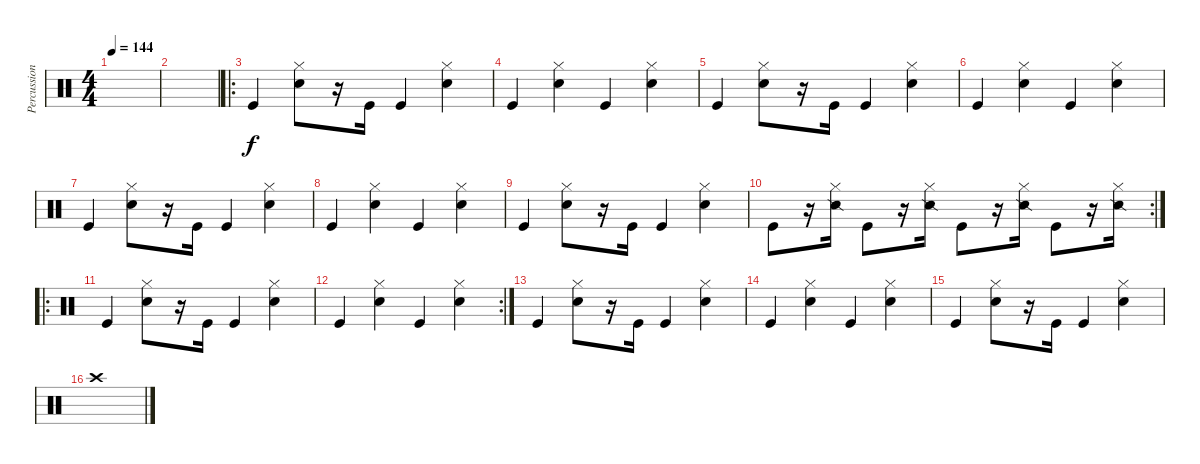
\track ("Percussions" "Percussion") {instrument percussion}
\staff {score}
\articulation defaults
\ts (4 4)
\tempo 144
\clef neutral
\ks c
|
|
\ro "Kick (hit)".4
("Hi-Hat (closed)" "Electric Snare (hit)").8 r.16 "Kick (hit)".16 "Kick (hit)".4 ("Hi-Hat (closed)" "Electric Snare (hit)").4 |
"Kick (hit)".4 ("Hi-Hat (closed)" "Electric Snare (hit)").4 "Kick (hit)".4 ("Hi-Hat (closed)" "Electric Snare (hit)").4 |
"Kick (hit)".4 ("Hi-Hat (closed)" "Electric Snare (hit)").8 r.16 "Kick (hit)".16 "Kick (hit)".4 ("Hi-Hat (closed)" "Electric Snare (hit)").4 |
"Kick (hit)".4 ("Hi-Hat (closed)" "Electric Snare (hit)").4 "Kick (hit)".4 ("Hi-Hat (closed)" "Electric Snare (hit)").4 |
"Kick (hit)".4 ("Hi-Hat (closed)" "Electric Snare (hit)").8 r.16 "Kick (hit)".16 "Kick (hit)".4 ("Hi-Hat (closed)" "Electric Snare (hit)").4 |
"Kick (hit)".4 ("Hi-Hat (closed)" "Electric Snare (hit)").4 "Kick (hit)".4 ("Hi-Hat (closed)" "Electric Snare (hit)").4 |
"Kick (hit)".4 ("Hi-Hat (closed)" "Electric Snare (hit)").8 r.16 "Kick (hit)".16 "Kick (hit)".4 ("Hi-Hat (closed)" "Electric Snare (hit)").4 |
\rc 2 "Kick (hit)".8
r.16 ("Hi-Hat (closed)" "Snare (side stick) 2").16 "Kick (hit)".8 r.16 ("Hi-Hat (closed)" "Snare (side stick) 2").16 "Kick (hit)".8 r.16 ("Hi-Hat (closed)" "Snare (side stick) 2").16 "Kick (hit)".8 r.16 ("Hi-Hat (closed)" "Snare (side stick) 2").16 |
\ro "Kick (hit)".4
("Hi-Hat (closed)" "Electric Snare (hit)").8 r.16 "Kick (hit)".16 "Kick (hit)".4 ("Hi-Hat (closed)" "Electric Snare (hit)").4 |
\rc 2 "Kick (hit)".4
("Hi-Hat (closed)" "Electric Snare (hit)").4 "Kick (hit)".4 ("Hi-Hat (closed)" "Electric Snare (hit)").4 |
"Kick (hit)".4 ("Hi-Hat (closed)" "Electric Snare (hit)").8 r.16 "Kick (hit)".16 "Kick (hit)".4 ("Hi-Hat (closed)" "Electric Snare (hit)").4 |
"Kick (hit)".4 ("Hi-Hat (closed)" "Electric Snare (hit)").4 "Kick (hit)".4 ("Hi-Hat (closed)" "Electric Snare (hit)").4 |
"Kick (hit)".4 ("Hi-Hat (closed)" "Electric Snare (hit)").8 r.16 "Kick (hit)".16 "Kick (hit)".4 ("Hi-Hat (closed)" "Electric Snare (hit)").4 |
"Crash high (hit)".1
